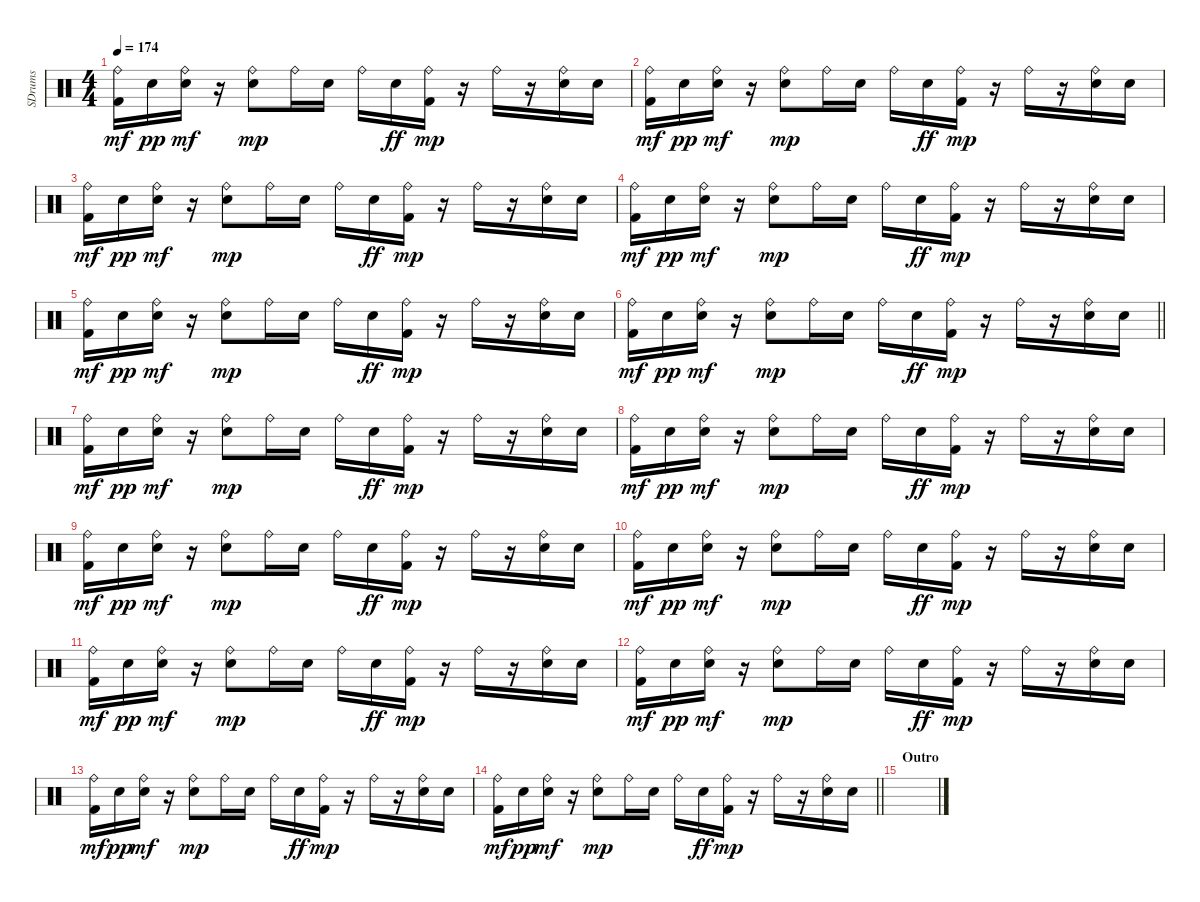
\track ("SDrums" "SDrums") {instrument percussion}
\staff {score}
\articulation defaults
\ts (4 4)
\tempo 174
\clef neutral
\ks c
("Kick (hit) 2" "Ride (bell)").16{dy mf} "Snare (hit) 2".16{dy pp} ("Snare (hit) 2" "Ride (bell)").16{dy mf} r.16 ("Snare (hit) 2" "Ride (bell)").8{dy mp} "Ride (bell)".16 "Snare (hit) 2".16 "Ride (bell)".16 "Snare (hit) 2".16{dy ff} ("Kick (hit) 2" "Ride (bell)").16{dy mp} r.16 "Ride (bell)".16 r.16 ("Snare (hit) 2" "Ride (bell)").16 "Snare (hit) 2".16 |
("Kick (hit) 2" "Ride (bell)").16{dy mf} "Snare (hit) 2".16{dy pp} ("Snare (hit) 2" "Ride (bell)").16{dy mf} r.16 ("Snare (hit) 2" "Ride (bell)").8{dy mp} "Ride (bell)".16 "Snare (hit) 2".16 "Ride (bell)".16 "Snare (hit) 2".16{dy ff} ("Kick (hit) 2" "Ride (bell)").16{dy mp} r.16 "Ride (bell)".16 r.16 ("Snare (hit) 2" "Ride (bell)").16 "Snare (hit) 2".16 |
("Kick (hit) 2" "Ride (bell)").16{dy mf} "Snare (hit) 2".16{dy pp} ("Snare (hit) 2" "Ride (bell)").16{dy mf} r.16 ("Snare (hit) 2" "Ride (bell)").8{dy mp} "Ride (bell)".16 "Snare (hit) 2".16 "Ride (bell)".16 "Snare (hit) 2".16{dy ff} ("Kick (hit) 2" "Ride (bell)").16{dy mp} r.16 "Ride (bell)".16 r.16 ("Snare (hit) 2" "Ride (bell)").16 "Snare (hit) 2".16 |
("Kick (hit) 2" "Ride (bell)").16{dy mf} "Snare (hit) 2".16{dy pp} ("Snare (hit) 2" "Ride (bell)").16{dy mf} r.16 ("Snare (hit) 2" "Ride (bell)").8{dy mp} "Ride (bell)".16 "Snare (hit) 2".16 "Ride (bell)".16 "Snare (hit) 2".16{dy ff} ("Kick (hit) 2" "Ride (bell)").16{dy mp} r.16 "Ride (bell)".16 r.16 ("Snare (hit) 2" "Ride (bell)").16 "Snare (hit) 2".16 |
("Kick (hit) 2" "Ride (bell)").16{dy mf} "Snare (hit) 2".16{dy pp} ("Snare (hit) 2" "Ride (bell)").16{dy mf} r.16 ("Snare (hit) 2" "Ride (bell)").8{dy mp} "Ride (bell)".16 "Snare (hit) 2".16 "Ride (bell)".16 "Snare (hit) 2".16{dy ff} ("Kick (hit) 2" "Ride (bell)").16{dy mp} r.16 "Ride (bell)".16 r.16 ("Snare (hit) 2" "Ride (bell)").16 "Snare (hit) 2".16 |
\barLineRight lightlight
("Kick (hit) 2" "Ride (bell)").16{dy mf} "Snare (hit) 2".16{dy pp} ("Snare (hit) 2" "Ride (bell)").16{dy mf} r.16 ("Snare (hit) 2" "Ride (bell)").8{dy mp} "Ride (bell)".16 "Snare (hit) 2".16 "Ride (bell)".16 "Snare (hit) 2".16{dy ff} ("Kick (hit) 2" "Ride (bell)").16{dy mp} r.16 "Ride (bell)".16 r.16 ("Snare (hit) 2" "Ride (bell)").16 "Snare (hit) 2".16 |
("Kick (hit) 2" "Ride (bell)").16{dy mf} "Snare (hit) 2".16{dy pp} ("Snare (hit) 2" "Ride (bell)").16{dy mf} r.16 ("Snare (hit) 2" "Ride (bell)").8{dy mp} "Ride (bell)".16 "Snare (hit) 2".16 "Ride (bell)".16 "Snare (hit) 2".16{dy ff} ("Kick (hit) 2" "Ride (bell)").16{dy mp} r.16 "Ride (bell)".16 r.16 ("Snare (hit) 2" "Ride (bell)").16 "Snare (hit) 2".16 |
("Kick (hit) 2" "Ride (bell)").16{dy mf} "Snare (hit) 2".16{dy pp} ("Snare (hit) 2" "Ride (bell)").16{dy mf} r.16 ("Snare (hit) 2" "Ride (bell)").8{dy mp} "Ride (bell)".16 "Snare (hit) 2".16 "Ride (bell)".16 "Snare (hit) 2".16{dy ff} ("Kick (hit) 2" "Ride (bell)").16{dy mp} r.16 "Ride (bell)".16 r.16 ("Snare (hit) 2" "Ride (bell)").16 "Snare (hit) 2".16 |
("Kick (hit) 2" "Ride (bell)").16{dy mf} "Snare (hit) 2".16{dy pp} ("Snare (hit) 2" "Ride (bell)").16{dy mf} r.16 ("Snare (hit) 2" "Ride (bell)").8{dy mp} "Ride (bell)".16 "Snare (hit) 2".16 "Ride (bell)".16 "Snare (hit) 2".16{dy ff} ("Kick (hit) 2" "Ride (bell)").16{dy mp} r.16 "Ride (bell)".16 r.16 ("Snare (hit) 2" "Ride (bell)").16 "Snare (hit) 2".16 |
("Kick (hit) 2" "Ride (bell)").16{dy mf} "Snare (hit) 2".16{dy pp} ("Snare (hit) 2" "Ride (bell)").16{dy mf} r.16 ("Snare (hit) 2" "Ride (bell)").8{dy mp} "Ride (bell)".16 "Snare (hit) 2".16 "Ride (bell)".16 "Snare (hit) 2".16{dy ff} ("Kick (hit) 2" "Ride (bell)").16{dy mp} r.16 "Ride (bell)".16 r.16 ("Snare (hit) 2" "Ride (bell)").16 "Snare (hit) 2".16 |
("Kick (hit) 2" "Ride (bell)").16{dy mf} "Snare (hit) 2".16{dy pp} ("Snare (hit) 2" "Ride (bell)").16{dy mf} r.16 ("Snare (hit) 2" "Ride (bell)").8{dy mp} "Ride (bell)".16 "Snare (hit) 2".16 "Ride (bell)".16 "Snare (hit) 2".16{dy ff} ("Kick (hit) 2" "Ride (bell)").16{dy mp} r.16 "Ride (bell)".16 r.16 ("Snare (hit) 2" "Ride (bell)").16 "Snare (hit) 2".16 |
("Kick (hit) 2" "Ride (bell)").16{dy mf} "Snare (hit) 2".16{dy pp} ("Snare (hit) 2" "Ride (bell)").16{dy mf} r.16 ("Snare (hit) 2" "Ride (bell)").8{dy mp} "Ride (bell)".16 "Snare (hit) 2".16 "Ride (bell)".16 "Snare (hit) 2".16{dy ff} ("Kick (hit) 2" "Ride (bell)").16{dy mp} r.16 "Ride (bell)".16 r.16 ("Snare (hit) 2" "Ride (bell)").16 "Snare (hit) 2".16 |
("Kick (hit) 2" "Ride (bell)").16{dy mf} "Snare (hit) 2".16{dy pp} ("Snare (hit) 2" "Ride (bell)").16{dy mf} r.16 ("Snare (hit) 2" "Ride (bell)").8{dy mp} "Ride (bell)".16 "Snare (hit) 2".16 "Ride (bell)".16 "Snare (hit) 2".16{dy ff} ("Kick (hit) 2" "Ride (bell)").16{dy mp} r.16 "Ride (bell)".16 r.16 ("Snare (hit) 2" "Ride (bell)").16 "Snare (hit) 2".16 |
\barLineRight lightlight
("Kick (hit) 2" "Ride (bell)").16{dy mf} "Snare (hit) 2".16{dy pp} ("Snare (hit) 2" "Ride (bell)").16{dy mf} r.16 ("Snare (hit) 2" "Ride (bell)").8{dy mp} "Ride (bell)".16 "Snare (hit) 2".16 "Ride (bell)".16 "Snare (hit) 2".16{dy ff} ("Kick (hit) 2" "Ride (bell)").16{dy mp} r.16 "Ride (bell)".16 r.16 ("Snare (hit) 2" "Ride (bell)").16 "Snare (hit) 2".16 |
\section ("" "Outro")
